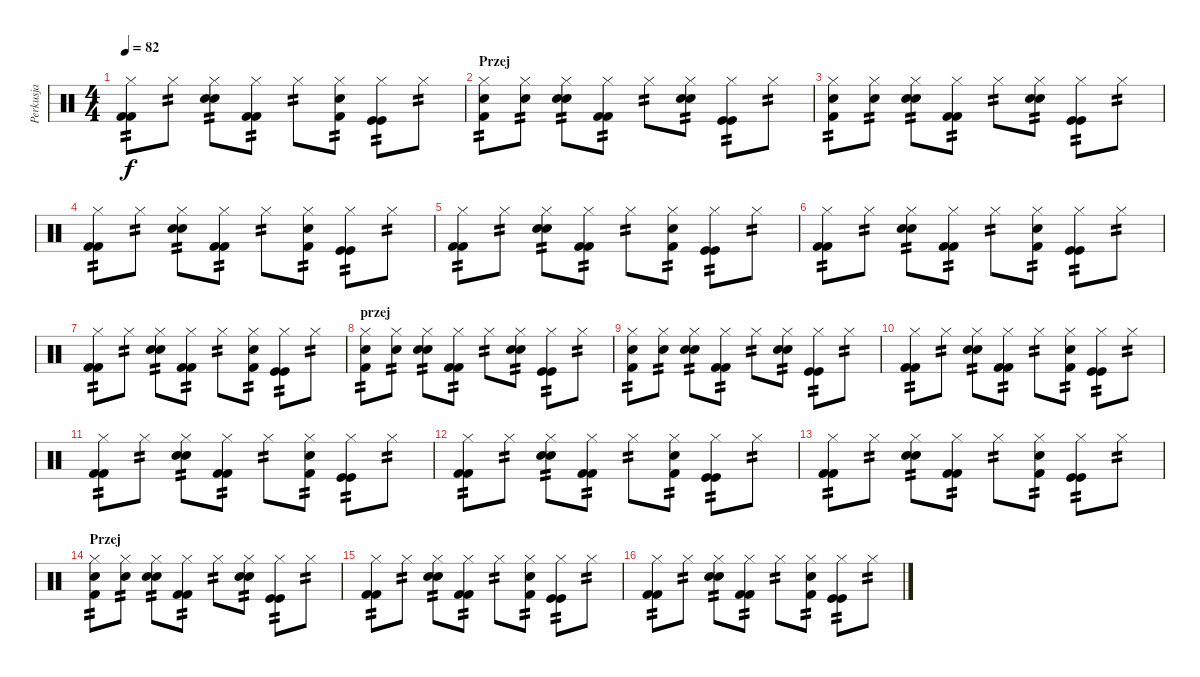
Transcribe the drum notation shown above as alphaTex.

\track ("Perkusja" "Perkusja") {instrument percussion}
\staff {score}
\articulation defaults
\ts (4 4)
\tempo 82
\clef neutral
\ks c
("Hi-Hat (closed)" "Kick (hit) 2" "Kick (hit) 2").8{tp 2 dy f} "Hi-Hat (closed)".8{tp 2} ("Hi-Hat (closed)" "Electric Snare (hit)" "Electric Snare (hit)").8{tp 2} ("Hi-Hat (closed)" "Kick (hit) 2" "Kick (hit) 2").8{tp 2} "Hi-Hat (closed)".8{tp 2} ("Hi-Hat (closed)" "Snare (hit) 2" "Kick (hit) 2").8{tp 2} ("Hi-Hat (closed)" "Kick (hit)" "Kick (hit)").8{tp 2} "Hi-Hat (closed)".8{tp 2} |
\section ("" "Przej")
("Hi-Hat (closed)" "Electric Snare (hit)" "Kick (hit) 2").8{tp 2} ("Hi-Hat (closed)" "Electric Snare (hit)").8{tp 2} ("Hi-Hat (closed)" "Electric Snare (hit)" "Electric Snare (hit)").8{tp 2} ("Hi-Hat (closed)" "Kick (hit) 2" "Kick (hit) 2").8{tp 2} "Hi-Hat (closed)".8{tp 2} ("Hi-Hat (closed)" "Electric Snare (hit)" "Electric Snare (hit)").8{tp 2} ("Hi-Hat (closed)" "Kick (hit)" "Kick (hit)").8{tp 2} "Hi-Hat (closed)".8{tp 2} |
("Hi-Hat (closed)" "Electric Snare (hit)" "Kick (hit) 2").8{tp 2} ("Hi-Hat (closed)" "Electric Snare (hit)").8{tp 2} ("Hi-Hat (closed)" "Electric Snare (hit)" "Electric Snare (hit)").8{tp 2} ("Hi-Hat (closed)" "Kick (hit) 2" "Kick (hit) 2").8{tp 2} "Hi-Hat (closed)".8{tp 2} ("Hi-Hat (closed)" "Electric Snare (hit)" "Electric Snare (hit)").8{tp 2} ("Hi-Hat (closed)" "Kick (hit)" "Kick (hit)").8{tp 2} "Hi-Hat (closed)".8{tp 2} |
("Hi-Hat (closed)" "Kick (hit) 2" "Kick (hit) 2").8{tp 2} "Hi-Hat (closed)".8{tp 2} ("Hi-Hat (closed)" "Electric Snare (hit)" "Electric Snare (hit)").8{tp 2} ("Hi-Hat (closed)" "Kick (hit) 2" "Kick (hit) 2").8{tp 2} "Hi-Hat (closed)".8{tp 2} ("Hi-Hat (closed)" "Snare (hit) 2" "Kick (hit) 2").8{tp 2} ("Hi-Hat (closed)" "Kick (hit)" "Kick (hit)").8{tp 2} "Hi-Hat (closed)".8{tp 2} |
("Hi-Hat (closed)" "Kick (hit) 2" "Kick (hit) 2").8{tp 2} "Hi-Hat (closed)".8{tp 2} ("Hi-Hat (closed)" "Electric Snare (hit)" "Electric Snare (hit)").8{tp 2} ("Hi-Hat (closed)" "Kick (hit) 2" "Kick (hit) 2").8{tp 2} "Hi-Hat (closed)".8{tp 2} ("Hi-Hat (closed)" "Snare (hit) 2" "Kick (hit) 2").8{tp 2} ("Hi-Hat (closed)" "Kick (hit)" "Kick (hit)").8{tp 2} "Hi-Hat (closed)".8{tp 2} |
("Hi-Hat (closed)" "Kick (hit) 2" "Kick (hit) 2").8{tp 2} "Hi-Hat (closed)".8{tp 2} ("Hi-Hat (closed)" "Electric Snare (hit)" "Electric Snare (hit)").8{tp 2} ("Hi-Hat (closed)" "Kick (hit) 2" "Kick (hit) 2").8{tp 2} "Hi-Hat (closed)".8{tp 2} ("Hi-Hat (closed)" "Snare (hit) 2" "Kick (hit) 2").8{tp 2} ("Hi-Hat (closed)" "Kick (hit)" "Kick (hit)").8{tp 2} "Hi-Hat (closed)".8{tp 2} |
("Hi-Hat (closed)" "Kick (hit) 2" "Kick (hit) 2").8{tp 2} "Hi-Hat (closed)".8{tp 2} ("Hi-Hat (closed)" "Electric Snare (hit)" "Electric Snare (hit)").8{tp 2} ("Hi-Hat (closed)" "Kick (hit) 2" "Kick (hit) 2").8{tp 2} "Hi-Hat (closed)".8{tp 2} ("Hi-Hat (closed)" "Snare (hit) 2" "Kick (hit) 2").8{tp 2} ("Hi-Hat (closed)" "Kick (hit)" "Kick (hit)").8{tp 2} "Hi-Hat (closed)".8{tp 2} |
\section ("" "przej")
("Hi-Hat (closed)" "Electric Snare (hit)" "Kick (hit) 2").8{tp 2} ("Hi-Hat (closed)" "Electric Snare (hit)").8{tp 2} ("Hi-Hat (closed)" "Electric Snare (hit)" "Electric Snare (hit)").8{tp 2} ("Hi-Hat (closed)" "Kick (hit) 2" "Kick (hit) 2").8{tp 2} "Hi-Hat (closed)".8{tp 2} ("Hi-Hat (closed)" "Electric Snare (hit)" "Electric Snare (hit)").8{tp 2} ("Hi-Hat (closed)" "Kick (hit)" "Kick (hit)").8{tp 2} "Hi-Hat (closed)".8{tp 2} |
("Hi-Hat (closed)" "Electric Snare (hit)" "Kick (hit) 2").8{tp 2} ("Hi-Hat (closed)" "Electric Snare (hit)").8{tp 2} ("Hi-Hat (closed)" "Electric Snare (hit)" "Electric Snare (hit)").8{tp 2} ("Hi-Hat (closed)" "Kick (hit) 2" "Kick (hit) 2").8{tp 2} "Hi-Hat (closed)".8{tp 2} ("Hi-Hat (closed)" "Electric Snare (hit)" "Electric Snare (hit)").8{tp 2} ("Hi-Hat (closed)" "Kick (hit)" "Kick (hit)").8{tp 2} "Hi-Hat (closed)".8{tp 2} |
("Hi-Hat (closed)" "Kick (hit) 2" "Kick (hit) 2").8{tp 2} "Hi-Hat (closed)".8{tp 2} ("Hi-Hat (closed)" "Electric Snare (hit)" "Electric Snare (hit)").8{tp 2} ("Hi-Hat (closed)" "Kick (hit) 2" "Kick (hit) 2").8{tp 2} "Hi-Hat (closed)".8{tp 2} ("Hi-Hat (closed)" "Snare (hit) 2" "Kick (hit) 2").8{tp 2} ("Hi-Hat (closed)" "Kick (hit)" "Kick (hit)").8{tp 2} "Hi-Hat (closed)".8{tp 2} |
("Hi-Hat (closed)" "Kick (hit) 2" "Kick (hit) 2").8{tp 2} "Hi-Hat (closed)".8{tp 2} ("Hi-Hat (closed)" "Electric Snare (hit)" "Electric Snare (hit)").8{tp 2} ("Hi-Hat (closed)" "Kick (hit) 2" "Kick (hit) 2").8{tp 2} "Hi-Hat (closed)".8{tp 2} ("Hi-Hat (closed)" "Snare (hit) 2" "Kick (hit) 2").8{tp 2} ("Hi-Hat (closed)" "Kick (hit)" "Kick (hit)").8{tp 2} "Hi-Hat (closed)".8{tp 2} |
("Hi-Hat (closed)" "Kick (hit) 2" "Kick (hit) 2").8{tp 2} "Hi-Hat (closed)".8{tp 2} ("Hi-Hat (closed)" "Electric Snare (hit)" "Electric Snare (hit)").8{tp 2} ("Hi-Hat (closed)" "Kick (hit) 2" "Kick (hit) 2").8{tp 2} "Hi-Hat (closed)".8{tp 2} ("Hi-Hat (closed)" "Snare (hit) 2" "Kick (hit) 2").8{tp 2} ("Hi-Hat (closed)" "Kick (hit)" "Kick (hit)").8{tp 2} "Hi-Hat (closed)".8{tp 2} |
("Hi-Hat (closed)" "Kick (hit) 2" "Kick (hit) 2").8{tp 2} "Hi-Hat (closed)".8{tp 2} ("Hi-Hat (closed)" "Electric Snare (hit)" "Electric Snare (hit)").8{tp 2} ("Hi-Hat (closed)" "Kick (hit) 2" "Kick (hit) 2").8{tp 2} "Hi-Hat (closed)".8{tp 2} ("Hi-Hat (closed)" "Snare (hit) 2" "Kick (hit) 2").8{tp 2} ("Hi-Hat (closed)" "Kick (hit)" "Kick (hit)").8{tp 2} "Hi-Hat (closed)".8{tp 2} |
\section ("" "Przej")
("Hi-Hat (closed)" "Electric Snare (hit)" "Kick (hit) 2").8{tp 2} ("Hi-Hat (closed)" "Electric Snare (hit)").8{tp 2} ("Hi-Hat (closed)" "Electric Snare (hit)" "Electric Snare (hit)").8{tp 2} ("Hi-Hat (closed)" "Kick (hit) 2" "Kick (hit) 2").8{tp 2} "Hi-Hat (closed)".8{tp 2} ("Hi-Hat (closed)" "Electric Snare (hit)" "Electric Snare (hit)").8{tp 2} ("Hi-Hat (closed)" "Kick (hit)" "Kick (hit)").8{tp 2} "Hi-Hat (closed)".8{tp 2} |
("Hi-Hat (closed)" "Kick (hit) 2" "Kick (hit) 2").8{tp 2} "Hi-Hat (closed)".8{tp 2} ("Hi-Hat (closed)" "Electric Snare (hit)" "Electric Snare (hit)").8{tp 2} ("Hi-Hat (closed)" "Kick (hit) 2" "Kick (hit) 2").8{tp 2} "Hi-Hat (closed)".8{tp 2} ("Hi-Hat (closed)" "Snare (hit) 2" "Kick (hit) 2").8{tp 2} ("Hi-Hat (closed)" "Kick (hit)" "Kick (hit)").8{tp 2} "Hi-Hat (closed)".8{tp 2} |
("Hi-Hat (closed)" "Kick (hit) 2" "Kick (hit) 2").8{tp 2} "Hi-Hat (closed)".8{tp 2} ("Hi-Hat (closed)" "Electric Snare (hit)" "Electric Snare (hit)").8{tp 2} ("Hi-Hat (closed)" "Kick (hit) 2" "Kick (hit) 2").8{tp 2} "Hi-Hat (closed)".8{tp 2} ("Hi-Hat (closed)" "Snare (hit) 2" "Kick (hit) 2").8{tp 2} ("Hi-Hat (closed)" "Kick (hit)" "Kick (hit)").8{tp 2} "Hi-Hat (closed)".8{tp 2}
